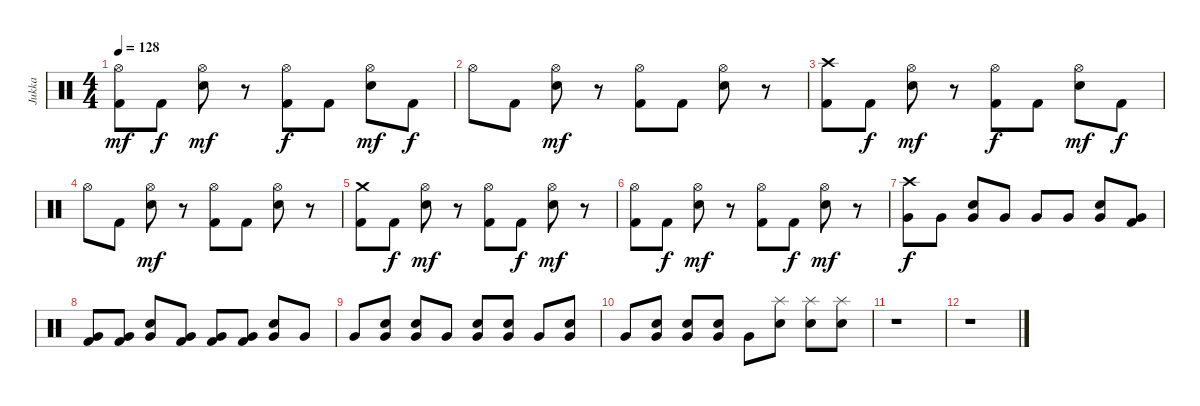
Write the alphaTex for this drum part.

\track ("Jukka" "Jukka") {instrument percussion}
\staff {score}
\articulation defaults
\ts (4 4)
\tempo 128
\clef neutral
\ks c
("Kick (hit) 2" "Hi-Hat (open)").8{dy mf} "Kick (hit) 2".8{dy f} ("Electric Snare (hit)" "Hi-Hat (open)").8{dy mf} r.8 ("Kick (hit) 2" "Hi-Hat (open)").8{dy f} "Kick (hit) 2".8 ("Electric Snare (hit)" "Hi-Hat (open)").8{dy mf} "Kick (hit) 2".8{dy f} |
"Hi-Hat (open)".8 "Kick (hit) 2".8 ("Electric Snare (hit)" "Hi-Hat (open)").8{dy mf} r.8 ("Kick (hit) 2" "Hi-Hat (open)").8 "Kick (hit) 2".8 ("Electric Snare (hit)" "Hi-Hat (open)").8 r.8 |
("Kick (hit) 2" "Crash high (hit)").8 "Kick (hit) 2".8{dy f} ("Electric Snare (hit)" "Hi-Hat (open)").8{dy mf} r.8 ("Kick (hit) 2" "Hi-Hat (open)").8{dy f} "Kick (hit) 2".8 ("Electric Snare (hit)" "Hi-Hat (open)").8{dy mf} "Kick (hit) 2".8{dy f} |
"Hi-Hat (open)".8 "Kick (hit) 2".8 ("Electric Snare (hit)" "Hi-Hat (open)").8{dy mf} r.8 ("Kick (hit) 2" "Hi-Hat (open)").8 "Kick (hit) 2".8 ("Electric Snare (hit)" "Hi-Hat (open)").8 r.8 |
("Kick (hit) 2" "Crash medium (hit)").8 "Kick (hit) 2".8{dy f} ("Electric Snare (hit)" "Hi-Hat (open)").8{dy mf} r.8 ("Kick (hit) 2" "Hi-Hat (open)").8 "Kick (hit) 2".8{dy f} ("Electric Snare (hit)" "Hi-Hat (open)").8{dy mf} r.8 |
("Kick (hit) 2" "Hi-Hat (open)").8 "Kick (hit) 2".8{dy f} ("Electric Snare (hit)" "Hi-Hat (open)").8{dy mf} r.8 ("Kick (hit) 2" "Hi-Hat (open)").8 "Kick (hit) 2".8{dy f} ("Electric Snare (hit)" "Hi-Hat (open)").8{dy mf} r.8 |
("Crash high (hit)" "Very Low Tom (hit)").8{dy f} "Very Low Tom (hit)".8 ("Electric Snare (hit)" "Very Low Tom (hit)").8 "Very Low Tom (hit)".8 "Very Low Tom (hit)".8 "Very Low Tom (hit)".8 ("Electric Snare (hit)" "Very Low Tom (hit)").8 ("Very Low Tom (hit)" "Kick (hit) 2").8 |
("Very Low Tom (hit)" "Kick (hit) 2").8 ("Very Low Tom (hit)" "Kick (hit) 2").8 ("Electric Snare (hit)" "Very Low Tom (hit)").8 ("Very Low Tom (hit)" "Kick (hit) 2").8 ("Very Low Tom (hit)" "Kick (hit) 2").8 ("Very Low Tom (hit)" "Kick (hit) 2").8 ("Electric Snare (hit)" "Very Low Tom (hit)").8 "Very Low Tom (hit)".8 |
"Very Low Tom (hit)".8 ("Electric Snare (hit)" "Very Low Tom (hit)").8 ("Electric Snare (hit)" "Very Low Tom (hit)").8 "Very Low Tom (hit)".8 ("Electric Snare (hit)" "Very Low Tom (hit)").8 ("Electric Snare (hit)" "Very Low Tom (hit)").8 "Very Low Tom (hit)".8 ("Electric Snare (hit)" "Very Low Tom (hit)").8 |
"Very Low Tom (hit)".8 ("Electric Snare (hit)" "Very Low Tom (hit)").8 ("Electric Snare (hit)" "Very Low Tom (hit)").8 ("Electric Snare (hit)" "Very Low Tom (hit)").8 "Very Low Tom (hit)".8 ("Electric Snare (hit)" "Splash (hit)").8 ("Electric Snare (hit)" "Splash (hit)").8 ("Electric Snare (hit)" "Splash (hit)").8 |
r.1 |
r.1
